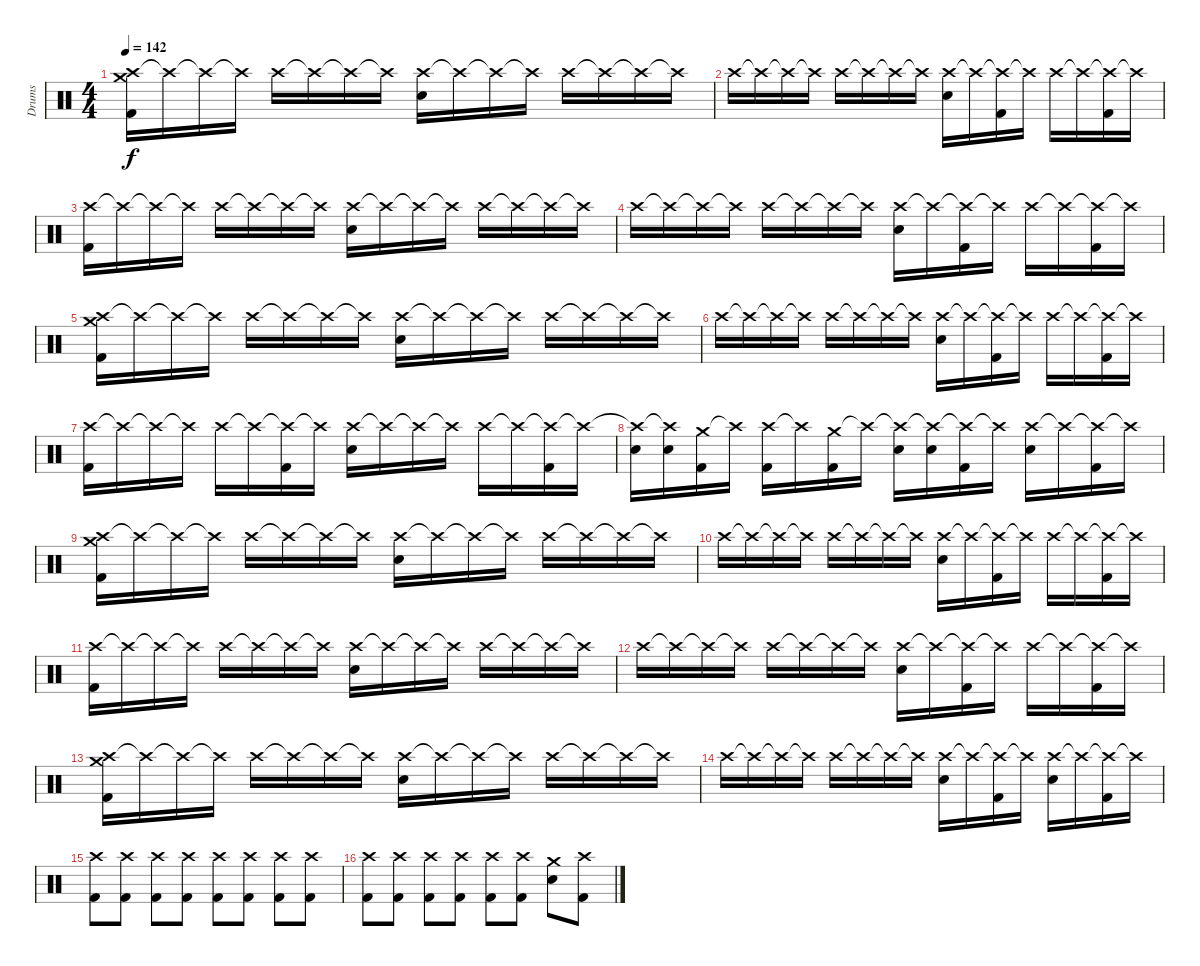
\track ("Drums" "Drums") {instrument percussion}
\staff {score}
\articulation defaults
\ts (4 4)
\tempo 142
\clef neutral
\ks c
("Crash high (hit)" "Crash medium (hit)" "Kick (hit) 2").16{dy f} "Crash high (hit)"{t}.16 "Crash high (hit)"{t}.16 "Crash high (hit)"{t}.16 "Crash high (hit)".16 "Crash high (hit)"{t}.16 "Crash high (hit)"{t}.16 "Crash high (hit)"{t}.16 ("Crash high (hit)" "Electric Snare (hit)").16 "Crash high (hit)"{t}.16 "Crash high (hit)"{t}.16 "Crash high (hit)"{t}.16 "Crash high (hit)".16 "Crash high (hit)"{t}.16 "Crash high (hit)"{t}.16 "Crash high (hit)"{t}.16 |
"Crash high (hit)".16 "Crash high (hit)"{t}.16 "Crash high (hit)"{t}.16 "Crash high (hit)"{t}.16 "Crash high (hit)".16 "Crash high (hit)"{t}.16 "Crash high (hit)"{t}.16 "Crash high (hit)"{t}.16 ("Crash high (hit)" "Electric Snare (hit)").16 "Crash high (hit)"{t}.16 ("Crash high (hit)"{t} "Kick (hit) 2").16 "Crash high (hit)"{t}.16 "Crash high (hit)".16 "Crash high (hit)"{t}.16 ("Crash high (hit)"{t} "Kick (hit) 2").16 "Crash high (hit)"{t}.16 |
("Crash high (hit)" "Kick (hit) 2").16 "Crash high (hit)"{t}.16 "Crash high (hit)"{t}.16 "Crash high (hit)"{t}.16 "Crash high (hit)".16 "Crash high (hit)"{t}.16 "Crash high (hit)"{t}.16 "Crash high (hit)"{t}.16 ("Crash high (hit)" "Electric Snare (hit)").16 "Crash high (hit)"{t}.16 "Crash high (hit)"{t}.16 "Crash high (hit)"{t}.16 "Crash high (hit)".16 "Crash high (hit)"{t}.16 "Crash high (hit)"{t}.16 "Crash high (hit)"{t}.16 |
"Crash high (hit)".16 "Crash high (hit)"{t}.16 "Crash high (hit)"{t}.16 "Crash high (hit)"{t}.16 "Crash high (hit)".16 "Crash high (hit)"{t}.16 "Crash high (hit)"{t}.16 "Crash high (hit)"{t}.16 ("Crash high (hit)" "Electric Snare (hit)").16 "Crash high (hit)"{t}.16 ("Crash high (hit)"{t} "Kick (hit) 2").16 "Crash high (hit)"{t}.16 "Crash high (hit)".16 "Crash high (hit)"{t}.16 ("Crash high (hit)"{t} "Kick (hit) 2").16 "Crash high (hit)"{t}.16 |
("Crash high (hit)" "Crash medium (hit)" "Kick (hit) 2").16 "Crash high (hit)"{t}.16 "Crash high (hit)"{t}.16 "Crash high (hit)"{t}.16 "Crash high (hit)".16 "Crash high (hit)"{t}.16 "Crash high (hit)"{t}.16 "Crash high (hit)"{t}.16 ("Crash high (hit)" "Electric Snare (hit)").16 "Crash high (hit)"{t}.16 "Crash high (hit)"{t}.16 "Crash high (hit)"{t}.16 "Crash high (hit)".16 "Crash high (hit)"{t}.16 "Crash high (hit)"{t}.16 "Crash high (hit)"{t}.16 |
"Crash high (hit)".16 "Crash high (hit)"{t}.16 "Crash high (hit)"{t}.16 "Crash high (hit)"{t}.16 "Crash high (hit)".16 "Crash high (hit)"{t}.16 "Crash high (hit)"{t}.16 "Crash high (hit)"{t}.16 ("Crash high (hit)" "Electric Snare (hit)").16 "Crash high (hit)"{t}.16 ("Crash high (hit)"{t} "Kick (hit) 2").16 "Crash high (hit)"{t}.16 "Crash high (hit)".16 "Crash high (hit)"{t}.16 ("Crash high (hit)"{t} "Kick (hit) 2").16 "Crash high (hit)"{t}.16 |
("Crash high (hit)" "Kick (hit) 2").16 "Crash high (hit)"{t}.16 "Crash high (hit)"{t}.16 "Crash high (hit)"{t}.16 "Crash high (hit)".16 "Crash high (hit)"{t}.16 ("Crash high (hit)"{t} "Kick (hit) 2").16 "Crash high (hit)"{t}.16 ("Crash high (hit)" "Electric Snare (hit)").16 "Crash high (hit)"{t}.16 "Crash high (hit)"{t}.16 "Crash high (hit)"{t}.16 "Crash high (hit)".16 "Crash high (hit)"{t}.16 ("Crash high (hit)"{t} "Kick (hit) 2").16 "Crash high (hit)"{t}.16 |
("Crash high (hit)"{t} "Electric Snare (hit)").16 ("Crash high (hit)"{t} "Electric Snare (hit)").16 ("Crash medium (hit)" "Kick (hit) 2").16 "Crash high (hit)"{t}.16 ("Crash high (hit)" "Kick (hit) 2").16 "Crash high (hit)"{t}.16 ("Crash medium (hit)" "Kick (hit) 2").16 "Crash high (hit)"{t}.16 ("Crash high (hit)"{t} "Electric Snare (hit)").16 ("Crash high (hit)"{t} "Electric Snare (hit)").16 ("Crash high (hit)"{t} "Kick (hit) 2").16 "Crash high (hit)"{t}.16 ("Crash high (hit)" "Electric Snare (hit)").16 "Crash high (hit)"{t}.16 ("Crash high (hit)"{t} "Kick (hit) 2").16 "Crash high (hit)"{t}.16 |
("Crash high (hit)" "Crash medium (hit)" "Kick (hit) 2").16 "Crash high (hit)"{t}.16 "Crash high (hit)"{t}.16 "Crash high (hit)"{t}.16 "Crash high (hit)".16 "Crash high (hit)"{t}.16 "Crash high (hit)"{t}.16 "Crash high (hit)"{t}.16 ("Crash high (hit)" "Electric Snare (hit)").16 "Crash high (hit)"{t}.16 "Crash high (hit)"{t}.16 "Crash high (hit)"{t}.16 "Crash high (hit)".16 "Crash high (hit)"{t}.16 "Crash high (hit)"{t}.16 "Crash high (hit)"{t}.16 |
"Crash high (hit)".16 "Crash high (hit)"{t}.16 "Crash high (hit)"{t}.16 "Crash high (hit)"{t}.16 "Crash high (hit)".16 "Crash high (hit)"{t}.16 "Crash high (hit)"{t}.16 "Crash high (hit)"{t}.16 ("Crash high (hit)" "Electric Snare (hit)").16 "Crash high (hit)"{t}.16 ("Crash high (hit)"{t} "Kick (hit) 2").16 "Crash high (hit)"{t}.16 "Crash high (hit)".16 "Crash high (hit)"{t}.16 ("Crash high (hit)"{t} "Kick (hit) 2").16 "Crash high (hit)"{t}.16 |
("Crash high (hit)" "Kick (hit) 2").16 "Crash high (hit)"{t}.16 "Crash high (hit)"{t}.16 "Crash high (hit)"{t}.16 "Crash high (hit)".16 "Crash high (hit)"{t}.16 "Crash high (hit)"{t}.16 "Crash high (hit)"{t}.16 ("Crash high (hit)" "Electric Snare (hit)").16 "Crash high (hit)"{t}.16 "Crash high (hit)"{t}.16 "Crash high (hit)"{t}.16 "Crash high (hit)".16 "Crash high (hit)"{t}.16 "Crash high (hit)"{t}.16 "Crash high (hit)"{t}.16 |
"Crash high (hit)".16 "Crash high (hit)"{t}.16 "Crash high (hit)"{t}.16 "Crash high (hit)"{t}.16 "Crash high (hit)".16 "Crash high (hit)"{t}.16 "Crash high (hit)"{t}.16 "Crash high (hit)"{t}.16 ("Crash high (hit)" "Electric Snare (hit)").16 "Crash high (hit)"{t}.16 ("Crash high (hit)"{t} "Kick (hit) 2").16 "Crash high (hit)"{t}.16 "Crash high (hit)".16 "Crash high (hit)"{t}.16 ("Crash high (hit)"{t} "Kick (hit) 2").16 "Crash high (hit)"{t}.16 |
("Crash high (hit)" "Crash medium (hit)" "Kick (hit) 2").16 "Crash high (hit)"{t}.16 "Crash high (hit)"{t}.16 "Crash high (hit)"{t}.16 "Crash high (hit)".16 "Crash high (hit)"{t}.16 "Crash high (hit)"{t}.16 "Crash high (hit)"{t}.16 ("Crash high (hit)" "Electric Snare (hit)").16 "Crash high (hit)"{t}.16 "Crash high (hit)"{t}.16 "Crash high (hit)"{t}.16 "Crash high (hit)".16 "Crash high (hit)"{t}.16 "Crash high (hit)"{t}.16 "Crash high (hit)"{t}.16 |
"Crash high (hit)".16 "Crash high (hit)"{t}.16 "Crash high (hit)"{t}.16 "Crash high (hit)"{t}.16 "Crash high (hit)".16 "Crash high (hit)"{t}.16 "Crash high (hit)"{t}.16 "Crash high (hit)"{t}.16 ("Crash high (hit)" "Electric Snare (hit)").16 "Crash high (hit)"{t}.16 ("Crash high (hit)"{t} "Kick (hit) 2").16 "Crash high (hit)"{t}.16 ("Crash high (hit)" "Electric Snare (hit)").16 "Crash high (hit)"{t}.16 ("Crash high (hit)"{t} "Kick (hit) 2").16 "Crash high (hit)"{t}.16 |
("Crash high (hit)" "Kick (hit) 2").8 ("Crash high (hit)" "Kick (hit) 2").8 ("Crash high (hit)" "Kick (hit) 2").8 ("Crash high (hit)" "Kick (hit) 2").8 ("Crash high (hit)" "Kick (hit) 2").8 ("Crash high (hit)" "Kick (hit) 2").8 ("Crash high (hit)" "Kick (hit) 2").8 ("Crash high (hit)" "Kick (hit) 2").8 |
("Crash high (hit)" "Kick (hit) 2").8 ("Crash high (hit)" "Kick (hit) 2").8 ("Crash high (hit)" "Kick (hit) 2").8 ("Crash high (hit)" "Kick (hit) 2").8 ("Crash high (hit)" "Kick (hit) 2").8 ("Crash high (hit)" "Kick (hit) 2").8 ("Crash medium (hit)" "Electric Snare (hit)").8 ("Crash high (hit)" "Kick (hit) 2").8
